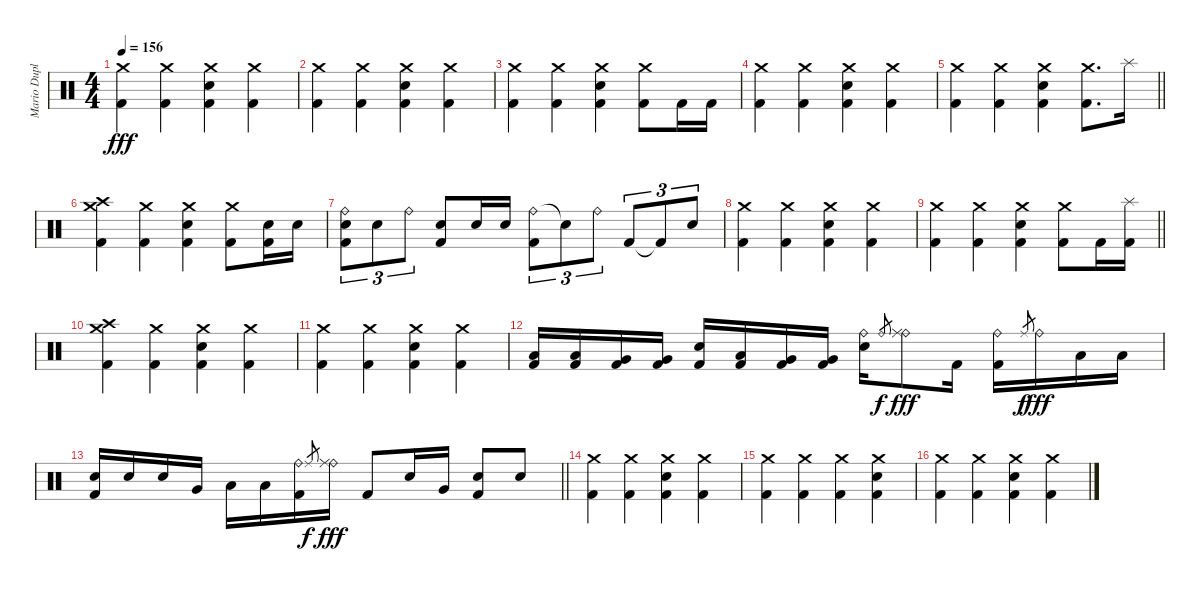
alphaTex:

\track ("Mario Duplantier" "Mario Dupl") {instrument percussion}
\staff {score}
\articulation defaults
\ts (4 4)
\tempo 156
\clef neutral
\ks c
("Crash medium (hit)" "Kick (hit) 2").4{dy fff} ("Crash medium (hit)" "Kick (hit) 2").4 ("Crash medium (hit)" "Electric Snare (hit)" "Kick (hit) 2").4 ("Crash medium (hit)" "Kick (hit) 2").4 |
("Crash medium (hit)" "Kick (hit) 2").4 ("Crash medium (hit)" "Kick (hit) 2").4 ("Crash medium (hit)" "Electric Snare (hit)" "Kick (hit) 2").4 ("Crash medium (hit)" "Kick (hit) 2").4 |
("Crash medium (hit)" "Kick (hit) 2").4 ("Crash medium (hit)" "Kick (hit) 2").4 ("Crash medium (hit)" "Electric Snare (hit)" "Kick (hit) 2").4 ("Crash medium (hit)" "Kick (hit) 2").8 "Kick (hit) 2".16 "Kick (hit) 2".16 |
("Crash medium (hit)" "Kick (hit) 2").4 ("Crash medium (hit)" "Kick (hit) 2").4 ("Crash medium (hit)" "Electric Snare (hit)" "Kick (hit) 2").4 ("Crash medium (hit)" "Kick (hit) 2").4 |
\barLineRight lightlight
("Crash medium (hit)" "Kick (hit) 2").4 ("Crash medium (hit)" "Kick (hit) 2").4 ("Crash medium (hit)" "Electric Snare (hit)" "Kick (hit) 2").4 ("Crash medium (hit)" "Kick (hit) 2").8{d} "Splash (hit)".16 |
("Crash medium (hit)" "Crash high (hit)" "Kick (hit) 2").4 ("Crash medium (hit)" "Kick (hit) 2").4 ("Crash medium (hit)" "Electric Snare (hit)" "Kick (hit) 2").4 ("Crash medium (hit)" "Kick (hit) 2").8 ("Electric Snare (hit)" "Kick (hit) 2").16 "Electric Snare (hit)".16 |
("Ride (bell)" "Electric Snare (hit)" "Kick (hit) 2").8{tu (3 2)} "Electric Snare (hit)".8{tu (3 2)} "Ride (bell)".8{tu (3 2)} ("Electric Snare (hit)" "Kick (hit) 2").8 "Electric Snare (hit)".16 "Electric Snare (hit)".16 ("Ride (bell)" "Kick (hit) 2").8{tu (3 2)} "Snare (hit)"{t}.8{tu (3 2)} "Ride (bell)".8{tu (3 2)} "Kick (hit) 2".8{tu (3 2)} "Kick (hit) 2"{t}.8{tu (3 2)} "Electric Snare (hit)".8{tu (3 2)} |
("Crash medium (hit)" "Kick (hit) 2").4 ("Crash medium (hit)" "Kick (hit) 2").4 ("Crash medium (hit)" "Electric Snare (hit)" "Kick (hit) 2").4 ("Crash medium (hit)" "Kick (hit) 2").4 |
\barLineRight lightlight
("Crash medium (hit)" "Kick (hit) 2").4 ("Crash medium (hit)" "Kick (hit) 2").4 ("Crash medium (hit)" "Electric Snare (hit)" "Kick (hit) 2").4 ("Crash medium (hit)" "Kick (hit) 2").8 "Kick (hit) 2".16 ("Splash (hit)" "Kick (hit) 2").16 |
("Crash medium (hit)" "Crash high (hit)" "Kick (hit) 2").4 ("Crash medium (hit)" "Kick (hit) 2").4 ("Crash medium (hit)" "Electric Snare (hit)" "Kick (hit) 2").4 ("Crash medium (hit)" "Kick (hit) 2").4 |
("Crash medium (hit)" "Kick (hit) 2").4 ("Crash medium (hit)" "Kick (hit) 2").4 ("Crash medium (hit)" "Electric Snare (hit)" "Kick (hit) 2").4 ("Crash medium (hit)" "Kick (hit) 2").4 |
("Low Tom (hit)" "Kick (hit) 2").16 ("Low Tom (hit)" "Kick (hit) 2").16 ("Very Low Tom (hit)" "Kick (hit) 2").16 ("Very Low Tom (hit)" "Kick (hit) 2").16 ("Electric Snare (hit)" "Kick (hit) 2").16 ("Low Tom (hit)" "Kick (hit) 2").16 ("Very Low Tom (hit)" "Kick (hit) 2").16 ("Very Low Tom (hit)" "Kick (hit) 2").16 ("Ride (bell)" "Electric Snare (hit)").16 "Ride (bell)".8{gr dy f} ("Ride (bell)" "Ride (middle)").8{dy fff} "Kick (hit) 2".16 ("Ride (bell)" "Kick (hit) 2").16 "Ride (middle)".8{gr dy f} "Ride (bell)".16{dy fff} "Low Tom (hit)".16 "Low Tom (hit)".16 |
\barLineRight lightlight
("Electric Snare (hit)" "Kick (hit) 2").16 "Electric Snare (hit)".16 "Electric Snare (hit)".16 "Very Low Tom (hit)".16 "Low Floor Tom (hit)".16 "Low Floor Tom (hit)".16 ("Ride (bell)" "Kick (hit) 2").16 "Ride (middle)".8{gr dy f} ("Ride (bell)" "Ride (middle)").16{dy fff} "Kick (hit) 2".8 "Electric Snare (hit)".16 "Very Low Tom (hit)".16 ("Electric Snare (hit)" "Kick (hit) 2").8 "Electric Snare (hit)".8 |
\section ("" "")
("Crash medium (hit)" "Kick (hit) 2").4 ("Crash medium (hit)" "Kick (hit) 2").4 ("Crash medium (hit)" "Electric Snare (hit)" "Kick (hit) 2").4 ("Crash medium (hit)" "Kick (hit) 2").4 |
("Crash medium (hit)" "Kick (hit) 2").4 ("Crash medium (hit)" "Kick (hit) 2").4 ("Crash medium (hit)" "Kick (hit) 2").4 ("Crash medium (hit)" "Electric Snare (hit)" "Kick (hit) 2").4 |
("Crash medium (hit)" "Kick (hit) 2").4 ("Crash medium (hit)" "Kick (hit) 2").4 ("Crash medium (hit)" "Electric Snare (hit)" "Kick (hit) 2").4 ("Crash medium (hit)" "Kick (hit) 2").4
